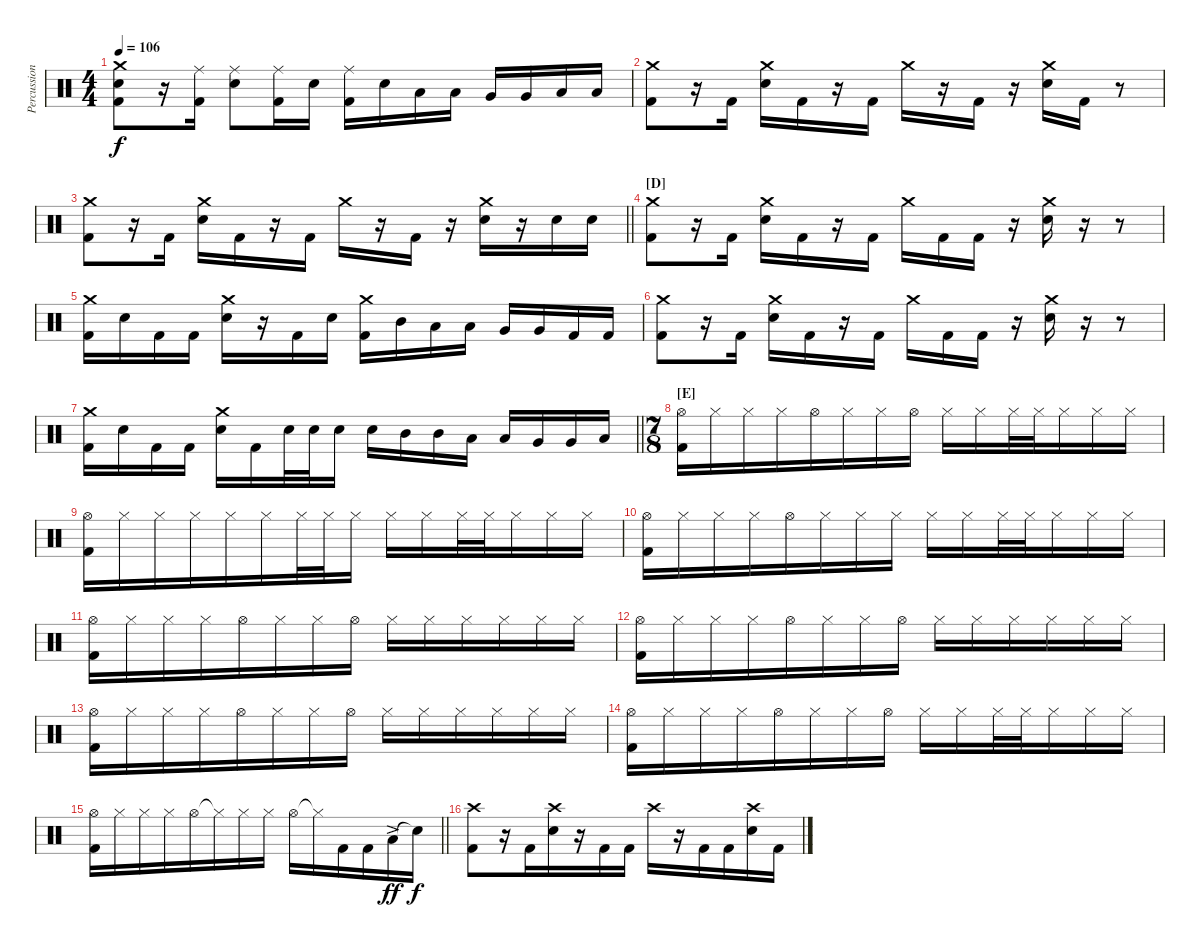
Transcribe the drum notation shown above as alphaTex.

\track ("Percussions" "Percussion") {instrument percussion}
\staff {score}
\articulation defaults
\ts (4 4)
\tempo 106
\clef neutral
\ks c
("Crash medium (hit)" "Electric Snare (hit)" "Kick (hit) 2").8{dy f} r.16 ("Ride (middle)" "Kick (hit) 2").16 ("Ride (middle)" "Electric Snare (hit)").8 ("Ride (middle)" "Kick (hit) 2").16 "Electric Snare (hit)".16 ("Ride (middle)" "Kick (hit) 2").16 "Electric Snare (hit)".16 "Low Tom (hit)".16 "Low Tom (hit)".16 "Very Low Tom (hit)".16 "Very Low Tom (hit)".16 "Low Floor Tom (hit)".16 "Low Floor Tom (hit)".16 |
("Crash medium (hit)" "Kick (hit) 2").8 r.16 "Kick (hit) 2".16 ("Crash medium (hit)" "Electric Snare (hit)").16 "Kick (hit) 2".16 r.16 "Kick (hit) 2".16 "Crash medium (hit)".16 r.16 "Kick (hit) 2".16 r.16 ("Crash medium (hit)" "Electric Snare (hit)").16 "Kick (hit) 2".16 r.8 |
\barLineRight lightlight
("Crash medium (hit)" "Kick (hit) 2").8 r.16 "Kick (hit) 2".16 ("Crash medium (hit)" "Electric Snare (hit)").16 "Kick (hit) 2".16 r.16 "Kick (hit) 2".16 "Crash medium (hit)".16 r.16 "Kick (hit) 2".16 r.16 ("Crash medium (hit)" "Electric Snare (hit)").16 r.16 "Electric Snare (hit)".16 "Electric Snare (hit)".16 |
\section ("" "[D]")
("Crash medium (hit)" "Kick (hit) 2").8 r.16 "Kick (hit) 2".16 ("Crash medium (hit)" "Electric Snare (hit)").16 "Kick (hit) 2".16 r.16 "Kick (hit) 2".16 "Crash medium (hit)".16 "Kick (hit) 2".16 "Kick (hit) 2".16 r.16 ("Crash medium (hit)" "Electric Snare (hit)").16 r.16 r.8 |
("Crash medium (hit)" "Kick (hit) 2").16 "Electric Snare (hit)".16 "Kick (hit) 2".16 "Kick (hit) 2".16 ("Crash medium (hit)" "Electric Snare (hit)").16 r.16 "Kick (hit) 2".16 "Electric Snare (hit)".16 ("Crash medium (hit)" "Kick (hit) 2").16 "Mid Tom (hit)".16 "Low Tom (hit)".16 "Low Tom (hit)".16 "Very Low Tom (hit)".16 "Very Low Tom (hit)".16 "Kick (hit) 2".16 "Kick (hit) 2".16 |
("Crash medium (hit)" "Kick (hit) 2").8 r.16 "Kick (hit) 2".16 ("Crash medium (hit)" "Electric Snare (hit)").16 "Kick (hit) 2".16 r.16 "Kick (hit) 2".16 "Crash medium (hit)".16 "Kick (hit) 2".16 "Kick (hit) 2".16 r.16 ("Crash medium (hit)" "Electric Snare (hit)").16 r.16 r.8 |
\barLineRight lightlight
("Crash medium (hit)" "Kick (hit) 2").16 "Electric Snare (hit)".16 "Kick (hit) 2".16 "Kick (hit) 2".16 ("Crash medium (hit)" "Electric Snare (hit)").16 "Kick (hit) 2".16 "Electric Snare (hit)".32 "Electric Snare (hit)".32 "Electric Snare (hit)".16 "Electric Snare (hit)".16 "Mid Tom (hit)".16 "Mid Tom (hit)".16 "Low Tom (hit)".16 "Low Tom (hit)".16 "Very Low Tom (hit)".16 "Very Low Tom (hit)".16 "Low Floor Tom (hit)".16 |
\ts (7 8)
\section ("" "[E]")
("Hi-Hat (open)" "Kick (hit) 2").16 "Hi-Hat (closed)".16 "Hi-Hat (closed)".16 "Hi-Hat (closed)".16 "Hi-Hat (open)".16 "Hi-Hat (closed)".16 "Hi-Hat (closed)".16 "Hi-Hat (open)".16 "Hi-Hat (closed)".16 "Hi-Hat (closed)".16 "Hi-Hat (closed)".32 "Hi-Hat (closed)".32 "Hi-Hat (closed)".16 "Hi-Hat (closed)".16 "Hi-Hat (closed)".16 |
("Hi-Hat (open)" "Kick (hit) 2").16 "Hi-Hat (closed)".16 "Hi-Hat (closed)".16 "Hi-Hat (closed)".16 "Hi-Hat (closed)".16 "Hi-Hat (closed)".16 "Hi-Hat (closed)".32 "Hi-Hat (closed)".32 "Hi-Hat (closed)".16 "Hi-Hat (closed)".16 "Hi-Hat (closed)".16 "Hi-Hat (closed)".32 "Hi-Hat (closed)".32 "Hi-Hat (closed)".16 "Hi-Hat (closed)".16 "Hi-Hat (closed)".16 |
("Hi-Hat (open)" "Kick (hit) 2").16 "Hi-Hat (closed)".16 "Hi-Hat (closed)".16 "Hi-Hat (closed)".16 "Hi-Hat (open)".16 "Hi-Hat (closed)".16 "Hi-Hat (closed)".16 "Hi-Hat (closed)".16 "Hi-Hat (closed)".16 "Hi-Hat (closed)".16 "Hi-Hat (closed)".32 "Hi-Hat (closed)".32 "Hi-Hat (closed)".16 "Hi-Hat (closed)".16 "Hi-Hat (closed)".16 |
("Hi-Hat (open)" "Kick (hit) 2").16 "Hi-Hat (closed)".16 "Hi-Hat (closed)".16 "Hi-Hat (closed)".16 "Hi-Hat (open)".16 "Hi-Hat (closed)".16 "Hi-Hat (closed)".16 "Hi-Hat (open)".16 "Hi-Hat (closed)".16 "Hi-Hat (closed)".16 "Hi-Hat (closed)".16 "Hi-Hat (closed)".16 "Hi-Hat (closed)".16 "Hi-Hat (closed)".16 |
("Hi-Hat (open)" "Kick (hit) 2").16 "Hi-Hat (closed)".16 "Hi-Hat (closed)".16 "Hi-Hat (closed)".16 "Hi-Hat (open)".16 "Hi-Hat (closed)".16 "Hi-Hat (closed)".16 "Hi-Hat (open)".16 "Hi-Hat (closed)".16 "Hi-Hat (closed)".16 "Hi-Hat (closed)".16 "Hi-Hat (closed)".16 "Hi-Hat (closed)".16 "Hi-Hat (closed)".16 |
("Hi-Hat (open)" "Kick (hit) 2").16 "Hi-Hat (closed)".16 "Hi-Hat (closed)".16 "Hi-Hat (closed)".16 "Hi-Hat (open)".16 "Hi-Hat (closed)".16 "Hi-Hat (closed)".16 "Hi-Hat (open)".16 "Hi-Hat (closed)".16 "Hi-Hat (closed)".16 "Hi-Hat (closed)".16 "Hi-Hat (closed)".16 "Hi-Hat (closed)".16 "Hi-Hat (closed)".16 |
("Hi-Hat (open)" "Kick (hit) 2").16 "Hi-Hat (closed)".16 "Hi-Hat (closed)".16 "Hi-Hat (closed)".16 "Hi-Hat (open)".16 "Hi-Hat (closed)".16 "Hi-Hat (closed)".16 "Hi-Hat (open)".16 "Hi-Hat (closed)".16 "Hi-Hat (closed)".16 "Hi-Hat (closed)".32 "Hi-Hat (closed)".32 "Hi-Hat (closed)".16 "Hi-Hat (closed)".16 "Hi-Hat (closed)".16 |
\barLineRight lightlight
("Hi-Hat (open)" "Kick (hit) 2").16 "Hi-Hat (closed)".16 "Hi-Hat (closed)".16 "Hi-Hat (closed)".16 "Hi-Hat (open)".16 "Hi-Hat (closed)"{t}.16 "Hi-Hat (closed)".16 "Hi-Hat (closed)".16 "Hi-Hat (open)".16 "Hi-Hat (closed)"{t}.16 "Kick (hit) 2".16 "Kick (hit) 2".16 "Low Tom (hit)"{ac}.16{dy ff} "Snare (hit)"{t}.16{dy f} |
\section ("" "")
("Crash high (hit)" "Kick (hit) 2").8 r.16 "Kick (hit) 2".16 ("Crash high (hit)" "Electric Snare (hit)").16 r.16 "Kick (hit) 2".16 "Kick (hit) 2".16 "Crash high (hit)".16 r.16 "Kick (hit) 2".16 "Kick (hit) 2".16 ("Crash high (hit)" "Electric Snare (hit)").16 "Kick (hit) 2".16
